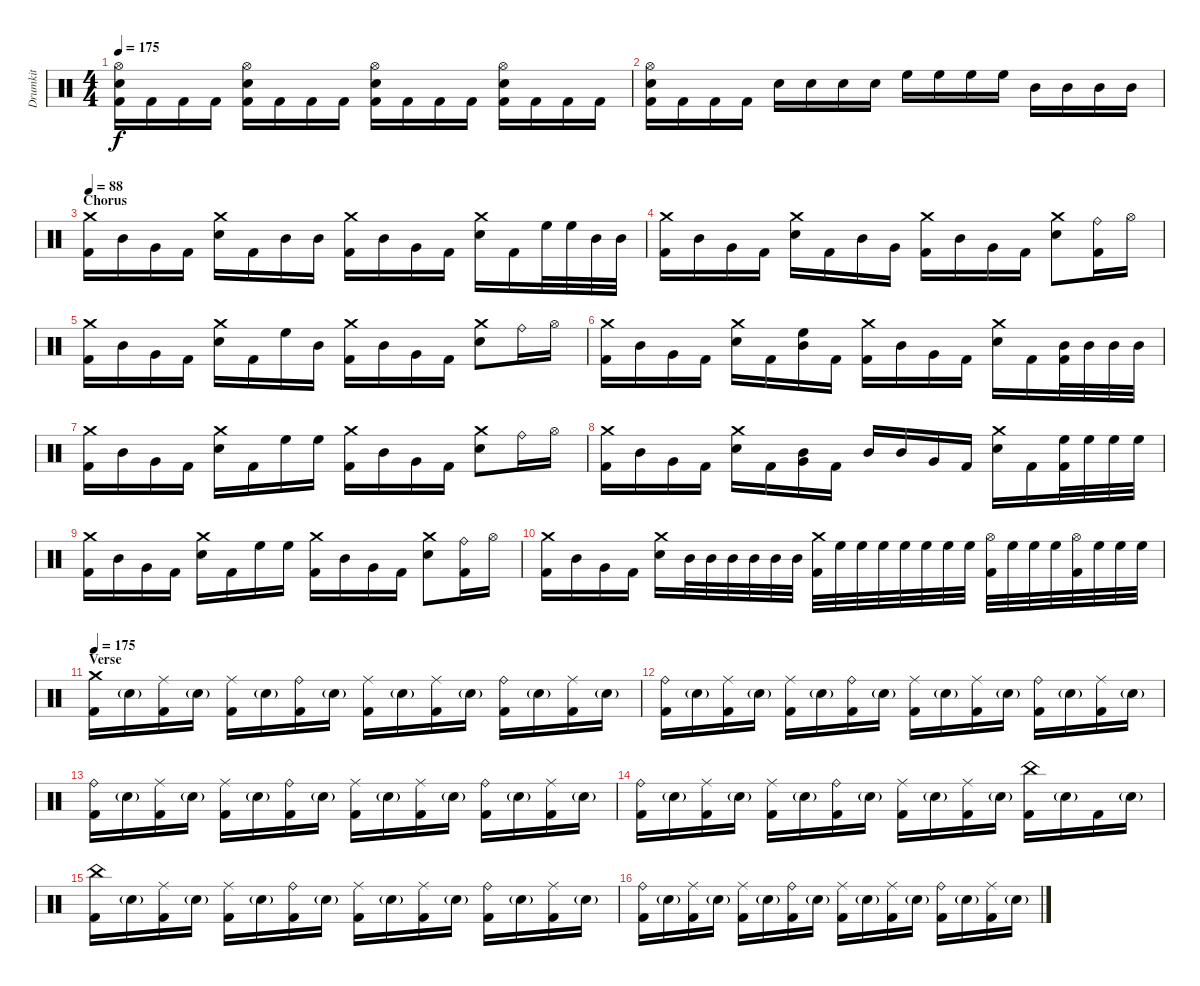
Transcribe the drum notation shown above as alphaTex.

\track ("Drumkit" "Drumkit") {instrument percussion}
\staff {score}
\articulation defaults
\ts (4 4)
\tempo 175
\clef neutral
\ks c
("Hi-Hat (open)" "Snare (hit) 2" "Kick (hit) 2").16{dy f} "Kick (hit) 2".16 "Kick (hit) 2".16 "Kick (hit) 2".16 ("Hi-Hat (open)" "Snare (hit) 2" "Kick (hit) 2").16 "Kick (hit) 2".16 "Kick (hit) 2".16 "Kick (hit) 2".16 ("Hi-Hat (open)" "Snare (hit) 2" "Kick (hit) 2").16 "Kick (hit) 2".16 "Kick (hit) 2".16 "Kick (hit) 2".16 ("Hi-Hat (open)" "Snare (hit) 2" "Kick (hit) 2").16 "Kick (hit) 2".16 "Kick (hit) 2".16 "Kick (hit) 2".16 |
("Hi-Hat (open)" "Snare (hit) 2" "Kick (hit) 2").16 "Kick (hit) 2".16 "Kick (hit) 2".16 "Kick (hit) 2".16 "Snare (hit) 2".16 "Snare (hit) 2".16 "Snare (hit) 2".16 "Snare (hit) 2".16 "High Floor Tom (hit)".16 "High Floor Tom (hit)".16 "High Floor Tom (hit)".16 "High Floor Tom (hit)".16 "Mid Tom (hit)".16 "Mid Tom (hit)".16 "Mid Tom (hit)".16 "Mid Tom (hit)".16 |
\section ("" "Chorus")
\tempo 88
("Crash medium (hit)" "Kick (hit) 2").16 "Mid Tom (hit)".16 "Very Low Tom (hit)".16 "Kick (hit) 2".16 ("Crash medium (hit)" "Snare (hit) 2").16 "Kick (hit) 2".16 "Mid Tom (hit)".16 "Mid Tom (hit)".16 ("Crash medium (hit)" "Kick (hit) 2").16 "Mid Tom (hit)".16 "Very Low Tom (hit)".16 "Kick (hit) 2".16 ("Crash medium (hit)" "Snare (hit) 2").16 "Kick (hit) 2".16 "High Floor Tom (hit)".32 "High Floor Tom (hit)".32 "Mid Tom (hit)".32 "Mid Tom (hit)".32 |
("Crash medium (hit)" "Kick (hit) 2").16 "Mid Tom (hit)".16 "Very Low Tom (hit)".16 "Kick (hit) 2".16 ("Crash medium (hit)" "Snare (hit) 2").16 "Kick (hit) 2".16 "Mid Tom (hit)".16 "Very Low Tom (hit)".16 ("Crash medium (hit)" "Kick (hit) 2").16 "Mid Tom (hit)".16 "Very Low Tom (hit)".16 "Kick (hit) 2".16 ("Crash medium (hit)" "Snare (hit) 2").8 ("Ride (bell)" "Kick (hit) 2").16 "Hi-Hat (open)".16 |
("Crash medium (hit)" "Kick (hit) 2").16 "Mid Tom (hit)".16 "Very Low Tom (hit)".16 "Kick (hit) 2".16 ("Crash medium (hit)" "Snare (hit) 2").16 "Kick (hit) 2".16 "High Floor Tom (hit)".16 "Mid Tom (hit)".16 ("Crash medium (hit)" "Kick (hit) 2").16 "Mid Tom (hit)".16 "Very Low Tom (hit)".16 "Kick (hit) 2".16 ("Crash medium (hit)" "Snare (hit) 2").8 "Ride (bell)".16 "Hi-Hat (open)".16 |
("Crash medium (hit)" "Kick (hit) 2").16 "Mid Tom (hit)".16 "Very Low Tom (hit)".16 "Kick (hit) 2".16 ("Crash medium (hit)" "Snare (hit) 2").16 "Kick (hit) 2".16 ("High Floor Tom (hit)" "Mid Tom (hit)").16 "Kick (hit) 2".16 ("Crash medium (hit)" "Kick (hit) 2").16 "Mid Tom (hit)".16 "Very Low Tom (hit)".16 "Kick (hit) 2".16 ("Crash medium (hit)" "Snare (hit) 2").16 "Kick (hit) 2".16 ("Mid Tom (hit)" "Kick (hit) 2").32 "Mid Tom (hit)".32 "Mid Tom (hit)".32 "Mid Tom (hit)".32 |
("Crash medium (hit)" "Kick (hit) 2").16 "Mid Tom (hit)".16 "Very Low Tom (hit)".16 "Kick (hit) 2".16 ("Crash medium (hit)" "Snare (hit) 2").16 "Kick (hit) 2".16 "High Floor Tom (hit)".16 "High Floor Tom (hit)".16 ("Crash medium (hit)" "Kick (hit) 2").16 "Mid Tom (hit)".16 "Very Low Tom (hit)".16 "Kick (hit) 2".16 ("Crash medium (hit)" "Snare (hit) 2").8 "Ride (bell)".16 "Hi-Hat (open)".16 |
("Crash medium (hit)" "Kick (hit) 2").16 "Mid Tom (hit)".16 "Very Low Tom (hit)".16 "Kick (hit) 2".16 ("Crash medium (hit)" "Snare (hit) 2").16 "Kick (hit) 2".16 ("Mid Tom (hit)" "Very Low Tom (hit)").16 "Kick (hit) 2".16 "Mid Tom (hit)".16 "Mid Tom (hit)".16 "Very Low Tom (hit)".16 "Kick (hit) 2".16 ("Crash medium (hit)" "Snare (hit) 2").16 "Kick (hit) 2".16 ("High Floor Tom (hit)" "Kick (hit) 2").32 "High Floor Tom (hit)".32 "High Floor Tom (hit)".32 "High Floor Tom (hit)".32 |
("Crash medium (hit)" "Kick (hit) 2").16 "Mid Tom (hit)".16 "Very Low Tom (hit)".16 "Kick (hit) 2".16 ("Crash medium (hit)" "Snare (hit) 2").16 "Kick (hit) 2".16 "High Floor Tom (hit)".16 "High Floor Tom (hit)".16 ("Crash medium (hit)" "Kick (hit) 2").16 "Mid Tom (hit)".16 "Very Low Tom (hit)".16 "Kick (hit) 2".16 ("Crash medium (hit)" "Snare (hit) 2").8 ("Ride (bell)" "Kick (hit) 2").16 "Hi-Hat (open)".16 |
("Crash medium (hit)" "Kick (hit) 2").16 "Mid Tom (hit)".16 "Very Low Tom (hit)".16 "Kick (hit) 2".16 ("Crash medium (hit)" "Snare (hit) 2").16 "Mid Tom (hit)".32 "Mid Tom (hit)".32 "Mid Tom (hit)".32 "Mid Tom (hit)".32 "Mid Tom (hit)".32 "Mid Tom (hit)".32 ("Crash medium (hit)" "Kick (hit) 2").32 "High Floor Tom (hit)".32 "High Floor Tom (hit)".32 "High Floor Tom (hit)".32 "High Floor Tom (hit)".32 "High Floor Tom (hit)".32 "High Floor Tom (hit)".32 "High Floor Tom (hit)".32 ("Hi-Hat (open)" "Kick (hit) 2").32 "High Floor Tom (hit)".32 "High Floor Tom (hit)".32 "High Floor Tom (hit)".32 ("Hi-Hat (open)" "Kick (hit) 2").32 "High Floor Tom (hit)".32 "High Floor Tom (hit)".32 "High Floor Tom (hit)".32 |
\section ("" "Verse")
\tempo 175
("Crash medium (hit)" "Kick (hit) 2").16 "Snare (hit) 2"{g}.16 ("Ride (middle)" "Kick (hit) 2").16 "Snare (hit) 2"{g}.16 ("Ride (middle)" "Kick (hit) 2").16 "Snare (hit) 2"{g}.16 ("Ride (bell)" "Kick (hit) 2").16 "Snare (hit) 2"{g}.16 ("Ride (middle)" "Kick (hit) 2").16 "Snare (hit) 2"{g}.16 ("Ride (middle)" "Kick (hit) 2").16 "Snare (hit) 2"{g}.16 ("Ride (bell)" "Kick (hit) 2").16 "Snare (hit) 2"{g}.16 ("Ride (middle)" "Kick (hit) 2").16 "Snare (hit) 2"{g}.16 |
("Ride (bell)" "Kick (hit) 2").16 "Snare (hit) 2"{g}.16 ("Ride (middle)" "Kick (hit) 2").16 "Snare (hit) 2"{g}.16 ("Ride (middle)" "Kick (hit) 2").16 "Snare (hit) 2"{g}.16 ("Ride (bell)" "Kick (hit) 2").16 "Snare (hit) 2"{g}.16 ("Ride (middle)" "Kick (hit) 2").16 "Snare (hit) 2"{g}.16 ("Ride (middle)" "Kick (hit) 2").16 "Snare (hit) 2"{g}.16 ("Ride (bell)" "Kick (hit) 2").16 "Snare (hit) 2"{g}.16 ("Ride (middle)" "Kick (hit) 2").16 "Snare (hit) 2"{g}.16 |
("Ride (bell)" "Kick (hit) 2").16 "Snare (hit) 2"{g}.16 ("Ride (middle)" "Kick (hit) 2").16 "Snare (hit) 2"{g}.16 ("Ride (middle)" "Kick (hit) 2").16 "Snare (hit) 2"{g}.16 ("Ride (bell)" "Kick (hit) 2").16 "Snare (hit) 2"{g}.16 ("Ride (middle)" "Kick (hit) 2").16 "Snare (hit) 2"{g}.16 ("Ride (middle)" "Kick (hit) 2").16 "Snare (hit) 2"{g}.16 ("Ride (bell)" "Kick (hit) 2").16 "Snare (hit) 2"{g}.16 ("Ride (middle)" "Kick (hit) 2").16 "Snare (hit) 2"{g}.16 |
("Ride (bell)" "Kick (hit) 2").16 "Snare (hit) 2"{g}.16 ("Ride (middle)" "Kick (hit) 2").16 "Snare (hit) 2"{g}.16 ("Ride (middle)" "Kick (hit) 2").16 "Snare (hit) 2"{g}.16 ("Ride (bell)" "Kick (hit) 2").16 "Snare (hit) 2"{g}.16 ("Ride (middle)" "Kick (hit) 2").16 "Snare (hit) 2"{g}.16 ("Ride (middle)" "Kick (hit) 2").16 "Snare (hit) 2"{g}.16 ("China (hit)" "Kick (hit) 2").16 "Snare (hit) 2"{g}.16 "Kick (hit) 2".16 "Snare (hit) 2"{g}.16 |
("China (hit)" "Kick (hit) 2").16 "Snare (hit) 2"{g}.16 ("Ride (middle)" "Kick (hit) 2").16 "Snare (hit) 2"{g}.16 ("Ride (middle)" "Kick (hit) 2").16 "Snare (hit) 2"{g}.16 ("Ride (bell)" "Kick (hit) 2").16 "Snare (hit) 2"{g}.16 ("Ride (middle)" "Kick (hit) 2").16 "Snare (hit) 2"{g}.16 ("Ride (middle)" "Kick (hit) 2").16 "Snare (hit) 2"{g}.16 ("Ride (bell)" "Kick (hit) 2").16 "Snare (hit) 2"{g}.16 ("Ride (middle)" "Kick (hit) 2").16 "Snare (hit) 2"{g}.16 |
("Ride (bell)" "Kick (hit) 2").16 "Snare (hit) 2"{g}.16 ("Ride (middle)" "Kick (hit) 2").16 "Snare (hit) 2"{g}.16 ("Ride (middle)" "Kick (hit) 2").16 "Snare (hit) 2"{g}.16 ("Ride (bell)" "Kick (hit) 2").16 "Snare (hit) 2"{g}.16 ("Ride (middle)" "Kick (hit) 2").16 "Snare (hit) 2"{g}.16 ("Ride (middle)" "Kick (hit) 2").16 "Snare (hit) 2"{g}.16 ("Ride (bell)" "Kick (hit) 2").16 "Snare (hit) 2"{g}.16 ("Ride (middle)" "Kick (hit) 2").16 "Snare (hit) 2"{g}.16
